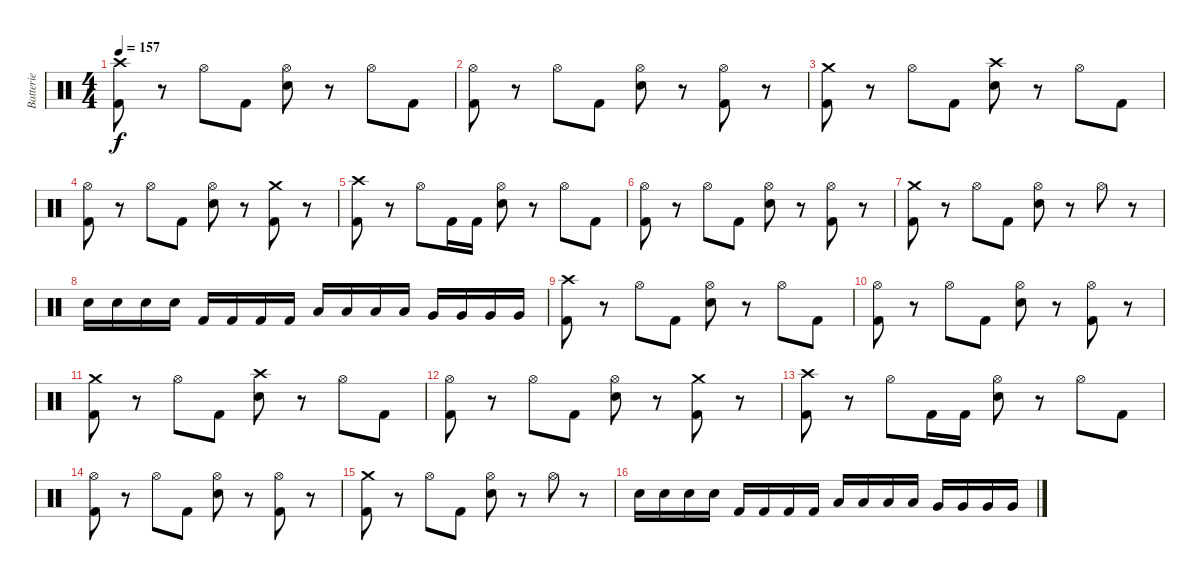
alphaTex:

\track ("Batterie" "Batterie") {instrument percussion}
\staff {score}
\articulation defaults
\ts (4 4)
\tempo 157
\clef neutral
\ks c
("Kick (hit) 2" "Crash high (hit)").8{dy f} r.8 "Hi-Hat (open)".8 "Kick (hit) 2".8 ("Electric Snare (hit)" "Hi-Hat (open)").8 r.8 "Hi-Hat (open)".8 "Kick (hit) 2".8 |
("Kick (hit) 2" "Hi-Hat (open)").8 r.8 "Hi-Hat (open)".8 "Kick (hit) 2".8 ("Electric Snare (hit)" "Hi-Hat (open)").8 r.8 ("Kick (hit) 2" "Hi-Hat (open)").8 r.8 |
("Kick (hit) 2" "Crash medium (hit)").8 r.8 "Hi-Hat (open)".8 "Kick (hit) 2".8 ("Electric Snare (hit)" "Crash high (hit)").8 r.8 "Hi-Hat (open)".8 "Kick (hit) 2".8 |
("Kick (hit) 2" "Hi-Hat (open)").8 r.8 "Hi-Hat (open)".8 "Kick (hit) 2".8 ("Electric Snare (hit)" "Hi-Hat (open)").8 r.8 ("Kick (hit) 2" "Crash medium (hit)").8 r.8 |
("Kick (hit) 2" "Crash high (hit)").8 r.8 "Hi-Hat (open)".8 "Kick (hit) 2".16 "Kick (hit) 2".16 ("Electric Snare (hit)" "Hi-Hat (open)").8 r.8 "Hi-Hat (open)".8 "Kick (hit) 2".8 |
("Kick (hit) 2" "Hi-Hat (open)").8 r.8 "Hi-Hat (open)".8 "Kick (hit) 2".8 ("Electric Snare (hit)" "Hi-Hat (open)").8 r.8 ("Kick (hit) 2" "Hi-Hat (open)").8 r.8 |
("Kick (hit) 2" "Crash medium (hit)").8 r.8 "Hi-Hat (open)".8 "Kick (hit) 2".8 ("Electric Snare (hit)" "Hi-Hat (open)").8 r.8 "Hi-Hat (open)".8 r.8 |
"Electric Snare (hit)".16 "Electric Snare (hit)".16 "Electric Snare (hit)".16 "Electric Snare (hit)".16 "Kick (hit) 2".16 "Kick (hit) 2".16 "Kick (hit) 2".16 "Kick (hit) 2".16 "Low Tom (hit)".16 "Low Tom (hit)".16 "Low Tom (hit)".16 "Low Tom (hit)".16 "Very Low Tom (hit)".16 "Very Low Tom (hit)".16 "Very Low Tom (hit)".16 "Very Low Tom (hit)".16 |
("Kick (hit) 2" "Crash high (hit)").8 r.8 "Hi-Hat (open)".8 "Kick (hit) 2".8 ("Electric Snare (hit)" "Hi-Hat (open)").8 r.8 "Hi-Hat (open)".8 "Kick (hit) 2".8 |
("Kick (hit) 2" "Hi-Hat (open)").8 r.8 "Hi-Hat (open)".8 "Kick (hit) 2".8 ("Electric Snare (hit)" "Hi-Hat (open)").8 r.8 ("Kick (hit) 2" "Hi-Hat (open)").8 r.8 |
("Kick (hit) 2" "Crash medium (hit)").8 r.8 "Hi-Hat (open)".8 "Kick (hit) 2".8 ("Electric Snare (hit)" "Crash high (hit)").8 r.8 "Hi-Hat (open)".8 "Kick (hit) 2".8 |
("Kick (hit) 2" "Hi-Hat (open)").8 r.8 "Hi-Hat (open)".8 "Kick (hit) 2".8 ("Electric Snare (hit)" "Hi-Hat (open)").8 r.8 ("Kick (hit) 2" "Crash medium (hit)").8 r.8 |
("Kick (hit) 2" "Crash high (hit)").8 r.8 "Hi-Hat (open)".8 "Kick (hit) 2".16 "Kick (hit) 2".16 ("Electric Snare (hit)" "Hi-Hat (open)").8 r.8 "Hi-Hat (open)".8 "Kick (hit) 2".8 |
("Kick (hit) 2" "Hi-Hat (open)").8 r.8 "Hi-Hat (open)".8 "Kick (hit) 2".8 ("Electric Snare (hit)" "Hi-Hat (open)").8 r.8 ("Kick (hit) 2" "Hi-Hat (open)").8 r.8 |
("Kick (hit) 2" "Crash medium (hit)").8 r.8 "Hi-Hat (open)".8 "Kick (hit) 2".8 ("Electric Snare (hit)" "Hi-Hat (open)").8 r.8 "Hi-Hat (open)".8 r.8 |
"Electric Snare (hit)".16 "Electric Snare (hit)".16 "Electric Snare (hit)".16 "Electric Snare (hit)".16 "Kick (hit) 2".16 "Kick (hit) 2".16 "Kick (hit) 2".16 "Kick (hit) 2".16 "Low Tom (hit)".16 "Low Tom (hit)".16 "Low Tom (hit)".16 "Low Tom (hit)".16 "Very Low Tom (hit)".16 "Very Low Tom (hit)".16 "Very Low Tom (hit)".16 "Very Low Tom (hit)".16
